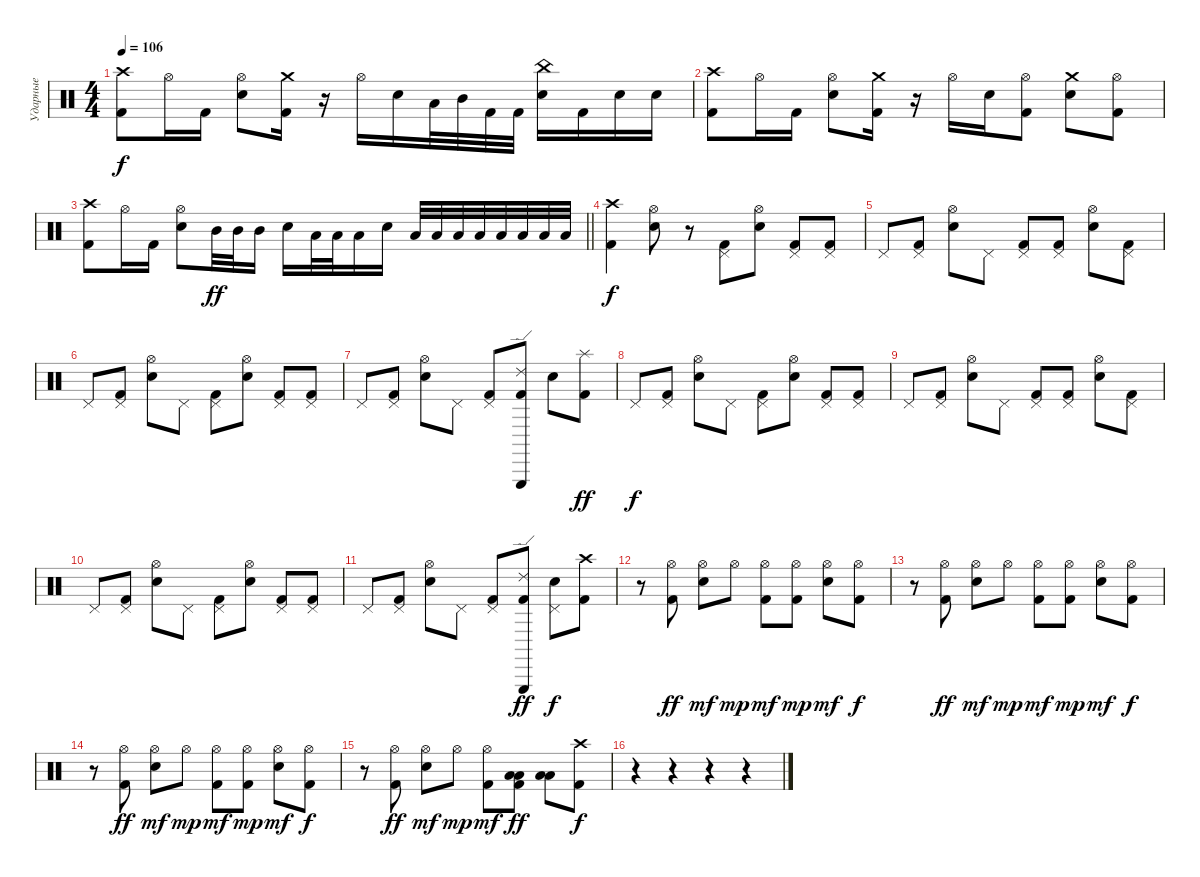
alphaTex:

\track ("Ударные" "Ударные") {instrument percussion}
\staff {score}
\articulation defaults
\ts (4 4)
\tempo 106
\clef neutral
\ks c
("Crash high (hit)" "Kick (hit) 2").8{dy f} "Hi-Hat (open)".16 "Kick (hit) 2".16 ("Hi-Hat (open)" "Electric Snare (hit)").8 ("Crash medium (hit)" "Kick (hit) 2").16 r.16 "Hi-Hat (open)".16 "Electric Snare (hit)".16 "Low Floor Tom (hit)".32 "Mid Tom (hit)".32 "Kick (hit) 2".32 "Kick (hit) 2".32 ("China (hit)" "Electric Snare (hit)").16 "Kick (hit) 2".16 "Electric Snare (hit)".16 "Electric Snare (hit)".16 |
("Crash high (hit)" "Kick (hit) 2").8 "Hi-Hat (open)".16 "Kick (hit) 2".16 ("Hi-Hat (open)" "Electric Snare (hit)").8 ("Crash medium (hit)" "Kick (hit) 2").16 r.16 "Hi-Hat (open)".16 "Electric Snare (hit)".16 ("Hi-Hat (open)" "Kick (hit) 2").8 ("Crash medium (hit)" "Electric Snare (hit)").8 ("Hi-Hat (open)" "Kick (hit) 2").8 |
\barLineRight lightlight
("Crash high (hit)" "Kick (hit) 2").8 "Hi-Hat (open)".16 "Kick (hit) 2".16 ("Hi-Hat (open)" "Electric Snare (hit)").8 "Mid Tom (hit)".32{dy ff} "Mid Tom (hit)".32 "Mid Tom (hit)".16 "Electric Snare (hit)".16 "Low Tom (hit)".32 "Low Tom (hit)".32 "Low Tom (hit)".16 "Electric Snare (hit)".16 "Low Tom (hit)".32 "Low Tom (hit)".32 "Low Tom (hit)".32 "Low Tom (hit)".32 "Low Floor Tom (hit)".32 "Low Floor Tom (hit)".32 "Low Floor Tom (hit)".32 "Low Floor Tom (hit)".32 |
("Crash high (hit)" "Kick (hit) 2").4{dy f} ("Hi-Hat (open)" "Electric Snare (hit)").8 r.8 ("Pedal Hi-Hat (hit)" "Kick (hit) 2").8 ("Hi-Hat (open)" "Electric Snare (hit)").8 ("Pedal Hi-Hat (hit)" "Kick (hit) 2").8 ("Pedal Hi-Hat (hit)" "Kick (hit) 2").8 |
"Pedal Hi-Hat (hit)".8 ("Pedal Hi-Hat (hit)" "Kick (hit) 2").8 ("Hi-Hat (open)" "Electric Snare (hit)").8 "Pedal Hi-Hat (hit)".8 ("Pedal Hi-Hat (hit)" "Kick (hit) 2").8 ("Pedal Hi-Hat (hit)" "Kick (hit) 2").8 ("Hi-Hat (open)" "Electric Snare (hit)").8 ("Pedal Hi-Hat (hit)" "Kick (hit) 2").8 |
"Pedal Hi-Hat (hit)".8 ("Pedal Hi-Hat (hit)" "Kick (hit) 2").8 ("Hi-Hat (open)" "Electric Snare (hit)").8 "Pedal Hi-Hat (hit)".8 ("Pedal Hi-Hat (hit)" "Kick (hit) 2").8 ("Hi-Hat (open)" "Electric Snare (hit)").8 ("Pedal Hi-Hat (hit)" "Kick (hit) 2").8 ("Pedal Hi-Hat (hit)" "Kick (hit) 2").8 |
"Pedal Hi-Hat (hit)".8 ("Pedal Hi-Hat (hit)" "Kick (hit) 2").8 ("Hi-Hat (open)" "Electric Snare (hit)").8 "Pedal Hi-Hat (hit)".8 ("Pedal Hi-Hat (hit)" "Kick (hit) 2").8 ("Triangle (hit)" "Ride (edge) 2" "Kick (hit) 2").8 "Electric Snare (hit)".8 ("Splash (hit)" "Kick (hit) 2").8{dy ff} |
"Pedal Hi-Hat (hit)".8{dy f} ("Pedal Hi-Hat (hit)" "Kick (hit) 2").8 ("Hi-Hat (open)" "Electric Snare (hit)").8 "Pedal Hi-Hat (hit)".8 ("Pedal Hi-Hat (hit)" "Kick (hit) 2").8 ("Hi-Hat (open)" "Electric Snare (hit)").8 ("Pedal Hi-Hat (hit)" "Kick (hit) 2").8 ("Pedal Hi-Hat (hit)" "Kick (hit) 2").8 |
"Pedal Hi-Hat (hit)".8 ("Pedal Hi-Hat (hit)" "Kick (hit) 2").8 ("Hi-Hat (open)" "Electric Snare (hit)").8 "Pedal Hi-Hat (hit)".8 ("Pedal Hi-Hat (hit)" "Kick (hit) 2").8 ("Pedal Hi-Hat (hit)" "Kick (hit) 2").8 ("Hi-Hat (open)" "Electric Snare (hit)").8 ("Pedal Hi-Hat (hit)" "Kick (hit) 2").8 |
"Pedal Hi-Hat (hit)".8 ("Pedal Hi-Hat (hit)" "Kick (hit) 2").8 ("Hi-Hat (open)" "Electric Snare (hit)").8 "Pedal Hi-Hat (hit)".8 ("Pedal Hi-Hat (hit)" "Kick (hit) 2").8 ("Hi-Hat (open)" "Electric Snare (hit)").8 ("Pedal Hi-Hat (hit)" "Kick (hit) 2").8 ("Pedal Hi-Hat (hit)" "Kick (hit) 2").8 |
"Pedal Hi-Hat (hit)".8 ("Pedal Hi-Hat (hit)" "Kick (hit) 2").8 ("Hi-Hat (open)" "Electric Snare (hit)").8 "Pedal Hi-Hat (hit)".8 ("Pedal Hi-Hat (hit)" "Kick (hit) 2").8 ("Triangle (hit)" "Ride (edge) 2" "Kick (hit) 2").8{dy ff} ("Pedal Hi-Hat (hit)" "Electric Snare (hit)").8{dy f} ("Crash high (hit)" "Kick (hit) 2").8 |
r.8 ("Hi-Hat (open)" "Kick (hit) 2").8{dy ff} ("Hi-Hat (open)" "Electric Snare (hit)").8{dy mf} "Hi-Hat (open)".8{dy mp} ("Hi-Hat (open)" "Kick (hit) 2").8{dy mf} ("Hi-Hat (open)" "Kick (hit) 2").8{dy mp} ("Hi-Hat (open)" "Electric Snare (hit)").8{dy mf} ("Hi-Hat (open)" "Kick (hit) 2").8{dy f} |
r.8 ("Hi-Hat (open)" "Kick (hit) 2").8{dy ff} ("Hi-Hat (open)" "Electric Snare (hit)").8{dy mf} "Hi-Hat (open)".8{dy mp} ("Hi-Hat (open)" "Kick (hit) 2").8{dy mf} ("Hi-Hat (open)" "Kick (hit) 2").8{dy mp} ("Hi-Hat (open)" "Electric Snare (hit)").8{dy mf} ("Hi-Hat (open)" "Kick (hit) 2").8{dy f} |
r.8 ("Hi-Hat (open)" "Kick (hit) 2").8{dy ff} ("Hi-Hat (open)" "Electric Snare (hit)").8{dy mf} "Hi-Hat (open)".8{dy mp} ("Hi-Hat (open)" "Kick (hit) 2").8{dy mf} ("Hi-Hat (open)" "Kick (hit) 2").8{dy mp} ("Hi-Hat (open)" "Electric Snare (hit)").8{dy mf} ("Hi-Hat (open)" "Kick (hit) 2").8{dy f} |
r.8 ("Hi-Hat (open)" "Kick (hit) 2").8{dy ff} ("Hi-Hat (open)" "Electric Snare (hit)").8{dy mf} "Hi-Hat (open)".8{dy mp} ("Hi-Hat (open)" "Kick (hit) 2").8{dy mf} ("Low Tom (hit)" "Low Floor Tom (hit)" "Kick (hit) 2").8{dy ff} ("Low Tom (hit)" "Low Floor Tom (hit)").8 ("Crash high (hit)" "Kick (hit) 2").8{dy f} |
r.4 r.4 r.4 r.4
